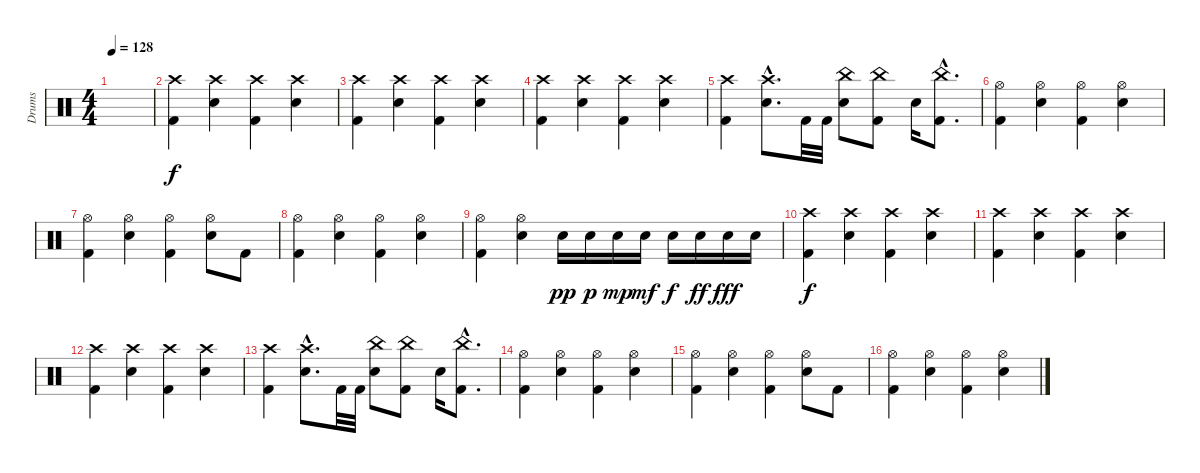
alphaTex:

\track ("Drums" "Drums") {instrument percussion}
\staff {score}
\articulation defaults
\ts (4 4)
\tempo 128
\clef neutral
\ks c
|
("Crash high (hit)" "Kick (hit) 2").4 ("Crash high (hit)" "Snare (hit) 2").4 ("Crash high (hit)" "Kick (hit) 2").4 ("Crash high (hit)" "Snare (hit) 2").4 |
("Crash high (hit)" "Kick (hit) 2").4 ("Crash high (hit)" "Snare (hit) 2").4 ("Crash high (hit)" "Kick (hit) 2").4 ("Crash high (hit)" "Snare (hit) 2").4 |
("Crash high (hit)" "Kick (hit) 2").4 ("Crash high (hit)" "Snare (hit) 2").4 ("Crash high (hit)" "Kick (hit) 2").4 ("Crash high (hit)" "Snare (hit) 2").4 |
("Crash high (hit)" "Kick (hit) 2").4 ("Crash high (hit)"{hac} "Snare (hit) 2"{hac}).8{d} "Kick (hit) 2".32 "Kick (hit) 2".32 ("China (hit)" "Snare (hit) 2").8 ("China (hit)" "Kick (hit) 2").8 "Snare (hit) 2".16 ("China (hit)"{hac} "Kick (hit) 2"{hac}).8{d} |
("Hi-Hat (open)" "Kick (hit) 2").4 ("Hi-Hat (open)" "Snare (hit) 2").4 ("Hi-Hat (open)" "Kick (hit) 2").4 ("Hi-Hat (open)" "Snare (hit) 2").4 |
("Hi-Hat (open)" "Kick (hit) 2").4 ("Hi-Hat (open)" "Snare (hit) 2").4 ("Hi-Hat (open)" "Kick (hit) 2").4 ("Hi-Hat (open)" "Snare (hit) 2").8 "Kick (hit) 2".8 |
("Hi-Hat (open)" "Kick (hit) 2").4 ("Hi-Hat (open)" "Snare (hit) 2").4 ("Hi-Hat (open)" "Kick (hit) 2").4 ("Hi-Hat (open)" "Snare (hit) 2").4 |
("Hi-Hat (open)" "Kick (hit) 2").4 ("Hi-Hat (open)" "Snare (hit) 2").4 "Snare (hit) 2".16{dy pp} "Snare (hit) 2".16{dy p} "Snare (hit) 2".16{dy mp} "Snare (hit) 2".16{dy mf} "Snare (hit) 2".16{dy f} "Snare (hit) 2".16{dy ff} "Snare (hit) 2".16{dy fff} "Snare (hit) 2".16 |
("Crash high (hit)" "Kick (hit) 2").4{dy f} ("Crash high (hit)" "Snare (hit) 2").4 ("Crash high (hit)" "Kick (hit) 2").4 ("Crash high (hit)" "Snare (hit) 2").4 |
("Crash high (hit)" "Kick (hit) 2").4 ("Crash high (hit)" "Snare (hit) 2").4 ("Crash high (hit)" "Kick (hit) 2").4 ("Crash high (hit)" "Snare (hit) 2").4 |
("Crash high (hit)" "Kick (hit) 2").4 ("Crash high (hit)" "Snare (hit) 2").4 ("Crash high (hit)" "Kick (hit) 2").4 ("Crash high (hit)" "Snare (hit) 2").4 |
("Crash high (hit)" "Kick (hit) 2").4 ("Crash high (hit)"{hac} "Snare (hit) 2"{hac}).8{d} "Kick (hit) 2".32 "Kick (hit) 2".32 ("China (hit)" "Snare (hit) 2").8 ("China (hit)" "Kick (hit) 2").8 "Snare (hit) 2".16 ("China (hit)"{hac} "Kick (hit) 2"{hac}).8{d} |
("Hi-Hat (open)" "Kick (hit) 2").4 ("Hi-Hat (open)" "Snare (hit) 2").4 ("Hi-Hat (open)" "Kick (hit) 2").4 ("Hi-Hat (open)" "Snare (hit) 2").4 |
("Hi-Hat (open)" "Kick (hit) 2").4 ("Hi-Hat (open)" "Snare (hit) 2").4 ("Hi-Hat (open)" "Kick (hit) 2").4 ("Hi-Hat (open)" "Snare (hit) 2").8 "Kick (hit) 2".8 |
("Hi-Hat (open)" "Kick (hit) 2").4 ("Hi-Hat (open)" "Snare (hit) 2").4 ("Hi-Hat (open)" "Kick (hit) 2").4 ("Hi-Hat (open)" "Snare (hit) 2").4
